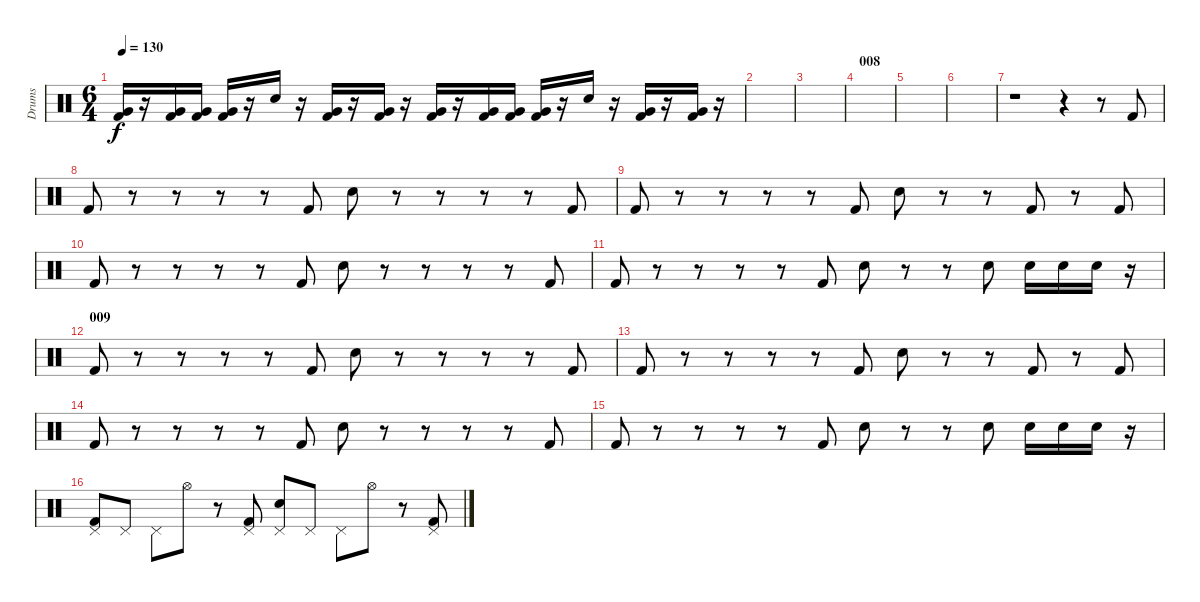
\track ("Drums" "Drums") {instrument percussion}
\staff {score}
\articulation defaults
\ts (6 4)
\tempo 130
\clef neutral
\ks c
("Very Low Tom (hit)" "Kick (hit) 2").16{dy f} r.16 ("Very Low Tom (hit)" "Kick (hit) 2").16 ("Very Low Tom (hit)" "Kick (hit) 2").16 ("Very Low Tom (hit)" "Kick (hit) 2").16 r.16 "Electric Snare (hit)".16 r.16 ("Very Low Tom (hit)" "Kick (hit) 2").16 r.16 ("Very Low Tom (hit)" "Kick (hit) 2").16 r.16 ("Very Low Tom (hit)" "Kick (hit) 2").16 r.16 ("Very Low Tom (hit)" "Kick (hit) 2").16 ("Very Low Tom (hit)" "Kick (hit) 2").16 ("Very Low Tom (hit)" "Kick (hit) 2").16 r.16 "Electric Snare (hit)".16 r.16 ("Very Low Tom (hit)" "Kick (hit) 2").16 r.16 ("Very Low Tom (hit)" "Kick (hit) 2").16 r.16 |
|
|
\section ("" "008")
|
|
|
r.1 r.4 r.8 "Kick (hit) 2".8 |
"Kick (hit) 2".8 r.8 r.8 r.8 r.8 "Kick (hit) 2".8 "Electric Snare (hit)".8 r.8 r.8 r.8 r.8 "Kick (hit) 2".8 |
"Kick (hit) 2".8 r.8 r.8 r.8 r.8 "Kick (hit) 2".8 "Electric Snare (hit)".8 r.8 r.8 "Kick (hit) 2".8 r.8 "Kick (hit) 2".8 |
"Kick (hit) 2".8 r.8 r.8 r.8 r.8 "Kick (hit) 2".8 "Electric Snare (hit)".8 r.8 r.8 r.8 r.8 "Kick (hit) 2".8 |
"Kick (hit) 2".8 r.8 r.8 r.8 r.8 "Kick (hit) 2".8 "Electric Snare (hit)".8 r.8 r.8 "Electric Snare (hit)".8 "Electric Snare (hit)".16 "Electric Snare (hit)".16 "Electric Snare (hit)".16 r.16 |
\section ("" "009")
"Kick (hit) 2".8 r.8 r.8 r.8 r.8 "Kick (hit) 2".8 "Electric Snare (hit)".8 r.8 r.8 r.8 r.8 "Kick (hit) 2".8 |
"Kick (hit) 2".8 r.8 r.8 r.8 r.8 "Kick (hit) 2".8 "Electric Snare (hit)".8 r.8 r.8 "Kick (hit) 2".8 r.8 "Kick (hit) 2".8 |
"Kick (hit) 2".8 r.8 r.8 r.8 r.8 "Kick (hit) 2".8 "Electric Snare (hit)".8 r.8 r.8 r.8 r.8 "Kick (hit) 2".8 |
"Kick (hit) 2".8 r.8 r.8 r.8 r.8 "Kick (hit) 2".8 "Electric Snare (hit)".8 r.8 r.8 "Electric Snare (hit)".8 "Electric Snare (hit)".16 "Electric Snare (hit)".16 "Electric Snare (hit)".16 r.16 |
("Kick (hit) 2" "Pedal Hi-Hat (hit)").8 "Pedal Hi-Hat (hit)".8 "Pedal Hi-Hat (hit)".8 "Hi-Hat (open)".8 r.8 ("Kick (hit) 2" "Pedal Hi-Hat (hit)").8 ("Electric Snare (hit)" "Pedal Hi-Hat (hit)").8 "Pedal Hi-Hat (hit)".8 "Pedal Hi-Hat (hit)".8 "Hi-Hat (open)".8 r.8 ("Kick (hit) 2" "Pedal Hi-Hat (hit)").8
